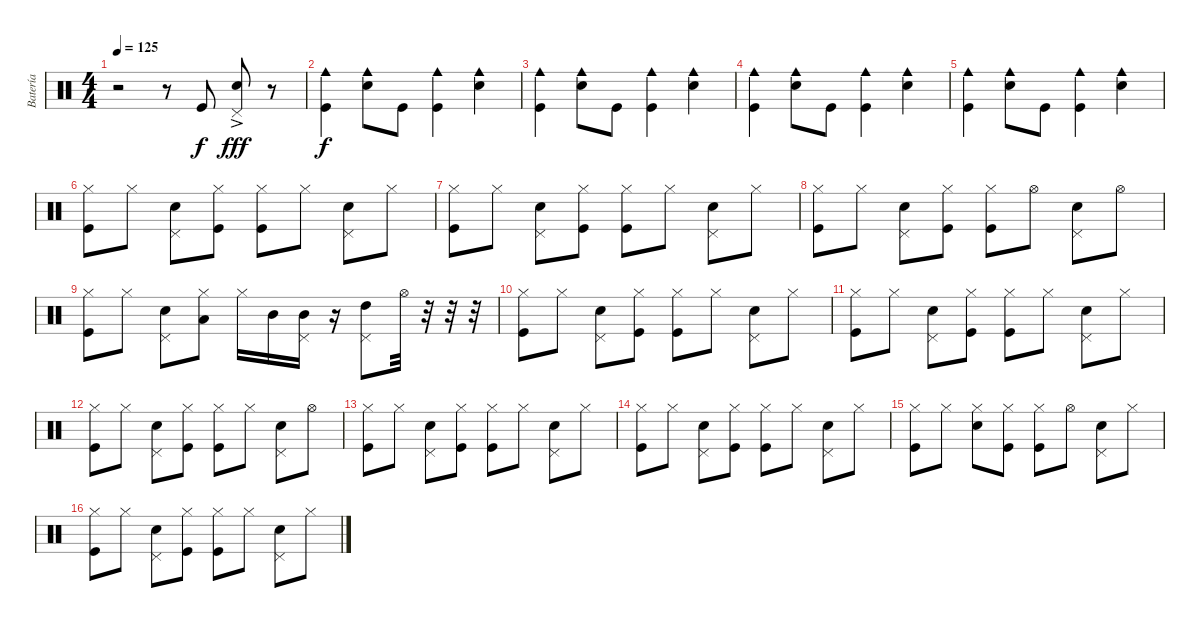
\track ("Batería" "Batería") {instrument percussion}
\staff {score}
\articulation defaults
\ts (4 4)
\tempo 125
\clef neutral
\ks c
r.2{dy f} r.8 "Kick (hit)".8 ("Pedal Hi-Hat (hit)" "Snare (hit) 2"{ac}).8{dy fff} r.8 |
("Cowbell medium (hit)" "Kick (hit)").4{dy f} ("Cowbell medium (hit)" "Snare (hit) 2").8 "Kick (hit)".8 ("Cowbell medium (hit)" "Kick (hit)").4 ("Cowbell medium (hit)" "Snare (hit) 2").4 |
("Cowbell medium (hit)" "Kick (hit)").4 ("Cowbell medium (hit)" "Snare (hit) 2").8 "Kick (hit)".8 ("Cowbell medium (hit)" "Kick (hit)").4 ("Cowbell medium (hit)" "Snare (hit) 2").4 |
("Cowbell medium (hit)" "Kick (hit)").4 ("Cowbell medium (hit)" "Snare (hit) 2").8 "Kick (hit)".8 ("Cowbell medium (hit)" "Kick (hit)").4 ("Cowbell medium (hit)" "Snare (hit) 2").4 |
("Cowbell medium (hit)" "Kick (hit)").4 ("Cowbell medium (hit)" "Snare (hit) 2").8 "Kick (hit)".8 ("Cowbell medium (hit)" "Kick (hit)").4 ("Cowbell medium (hit)" "Snare (hit) 2").4 |
("Hi-Hat (closed)" "Kick (hit)").8 "Hi-Hat (closed)".8 ("Pedal Hi-Hat (hit)" "Snare (hit) 2").8 ("Hi-Hat (closed)" "Kick (hit)").8 ("Hi-Hat (closed)" "Kick (hit)").8 "Hi-Hat (closed)".8 ("Pedal Hi-Hat (hit)" "Snare (hit) 2").8 "Hi-Hat (closed)".8 |
("Hi-Hat (closed)" "Kick (hit)").8 "Hi-Hat (closed)".8 ("Pedal Hi-Hat (hit)" "Snare (hit) 2").8 ("Hi-Hat (closed)" "Kick (hit)").8 ("Hi-Hat (closed)" "Kick (hit)").8 "Hi-Hat (closed)".8 ("Pedal Hi-Hat (hit)" "Snare (hit) 2").8 "Hi-Hat (closed)".8 |
("Hi-Hat (closed)" "Kick (hit)").8 "Hi-Hat (closed)".8 ("Pedal Hi-Hat (hit)" "Snare (hit) 2").8 ("Hi-Hat (closed)" "Kick (hit)").8 ("Hi-Hat (closed)" "Kick (hit)").8 "Hi-Hat (open)".8 ("Pedal Hi-Hat (hit)" "Snare (hit) 2").8 "Hi-Hat (open)".8 |
("Hi-Hat (closed)" "Kick (hit)").8 "Hi-Hat (closed)".8 ("Pedal Hi-Hat (hit)" "Snare (hit) 2").8 ("Hi-Hat (closed)" "Low Tom (hit)").8 "Hi-Hat (closed)".16 "Mid Tom (hit)".16 ("Pedal Hi-Hat (hit)" "Mid Tom (hit)").16 r.16 ("Pedal Hi-Hat (hit)" "High Tom (hit)").8 "Hi-Hat (open)".32 r.32 r.32 r.32 |
("Hi-Hat (closed)" "Kick (hit)").8 "Hi-Hat (closed)".8 ("Pedal Hi-Hat (hit)" "Snare (hit) 2").8 ("Hi-Hat (closed)" "Kick (hit)").8 ("Hi-Hat (closed)" "Kick (hit)").8 "Hi-Hat (closed)".8 ("Pedal Hi-Hat (hit)" "Snare (hit) 2").8 "Hi-Hat (closed)".8 |
("Hi-Hat (closed)" "Kick (hit)").8 "Hi-Hat (closed)".8 ("Pedal Hi-Hat (hit)" "Snare (hit) 2").8 ("Hi-Hat (closed)" "Kick (hit)").8 ("Hi-Hat (closed)" "Kick (hit)").8 "Hi-Hat (closed)".8 ("Pedal Hi-Hat (hit)" "Snare (hit) 2").8 "Hi-Hat (closed)".8 |
("Hi-Hat (closed)" "Kick (hit)").8 "Hi-Hat (closed)".8 ("Pedal Hi-Hat (hit)" "Snare (hit) 2").8 ("Hi-Hat (closed)" "Kick (hit)").8 ("Hi-Hat (closed)" "Kick (hit)").8 "Hi-Hat (closed)".8 ("Pedal Hi-Hat (hit)" "Snare (hit) 2").8 "Hi-Hat (open)".8 |
("Hi-Hat (closed)" "Kick (hit)").8 "Hi-Hat (closed)".8 ("Pedal Hi-Hat (hit)" "Snare (hit) 2").8 ("Hi-Hat (closed)" "Kick (hit)").8 ("Hi-Hat (closed)" "Kick (hit)").8 "Hi-Hat (closed)".8 ("Pedal Hi-Hat (hit)" "Snare (hit) 2").8 "Hi-Hat (closed)".8 |
("Hi-Hat (closed)" "Kick (hit)").8 "Hi-Hat (closed)".8 ("Pedal Hi-Hat (hit)" "Snare (hit) 2").8 ("Hi-Hat (closed)" "Kick (hit)").8 ("Hi-Hat (closed)" "Kick (hit)").8 "Hi-Hat (closed)".8 ("Pedal Hi-Hat (hit)" "Snare (hit) 2").8 "Hi-Hat (closed)".8 |
("Hi-Hat (closed)" "Kick (hit)").8 "Hi-Hat (closed)".8 ("Hi-Hat (closed)" "Snare (hit) 2").8 ("Hi-Hat (closed)" "Kick (hit)").8 ("Hi-Hat (closed)" "Kick (hit)").8 "Hi-Hat (open)".8 ("Pedal Hi-Hat (hit)" "Snare (hit) 2").8 "Hi-Hat (closed)".8 |
("Hi-Hat (closed)" "Kick (hit)").8 "Hi-Hat (closed)".8 ("Pedal Hi-Hat (hit)" "Snare (hit) 2").8 ("Hi-Hat (closed)" "Kick (hit)").8 ("Hi-Hat (closed)" "Kick (hit)").8 "Hi-Hat (closed)".8 ("Pedal Hi-Hat (hit)" "Snare (hit) 2").8 "Hi-Hat (closed)".8
